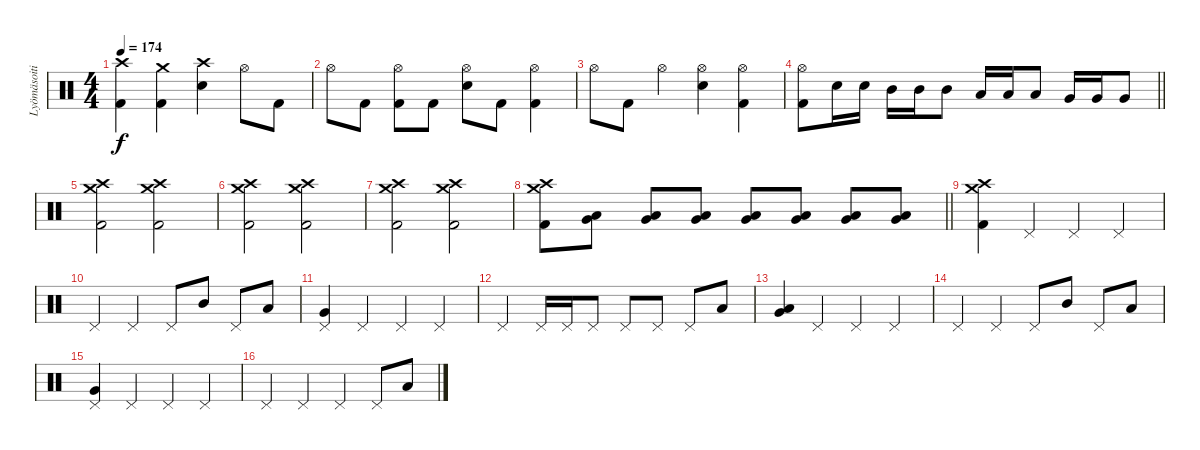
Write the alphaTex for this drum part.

\track ("Lyömäsoitin" "Lyömäsoiti") {instrument percussion}
\staff {score}
\articulation defaults
\ts (4 4)
\tempo 174
\clef neutral
\ks c
("Crash high (hit)" "Kick (hit) 2").4{dy f} ("Crash medium (hit)" "Kick (hit) 2").4 ("Crash high (hit)" "Electric Snare (hit)").4 "Hi-Hat (open)".8 "Kick (hit) 2".8 |
"Hi-Hat (open)".8 "Kick (hit) 2".8 ("Hi-Hat (open)" "Kick (hit) 2").8 "Kick (hit) 2".8 ("Hi-Hat (open)" "Electric Snare (hit)").8 "Kick (hit) 2".8 ("Hi-Hat (open)" "Kick (hit) 2").4 |
"Hi-Hat (open)".8 "Kick (hit) 2".8 "Hi-Hat (open)".4 ("Hi-Hat (open)" "Electric Snare (hit)").4 ("Hi-Hat (open)" "Kick (hit) 2").4 |
\barLineRight lightlight
("Hi-Hat (open)" "Kick (hit) 2").8 "Electric Snare (hit)".16 "Electric Snare (hit)".16 "Mid Tom (hit)".16 "Mid Tom (hit)".16 "Mid Tom (hit)".8 "Low Tom (hit)".16 "Low Tom (hit)".16 "Low Tom (hit)".8 "Very Low Tom (hit)".16 "Very Low Tom (hit)".16 "Very Low Tom (hit)".8 |
\section ("" "")
("Crash medium (hit)" "Crash high (hit)" "Kick (hit) 2").2 ("Crash medium (hit)" "Crash high (hit)" "Kick (hit) 2").2 |
("Crash medium (hit)" "Crash high (hit)" "Kick (hit) 2").2 ("Crash medium (hit)" "Crash high (hit)" "Kick (hit) 2").2 |
("Crash medium (hit)" "Crash high (hit)" "Kick (hit) 2").2 ("Crash medium (hit)" "Crash high (hit)" "Kick (hit) 2").2 |
\barLineRight lightlight
("Crash medium (hit)" "Crash high (hit)" "Kick (hit) 2").8 ("Low Tom (hit)" "Very Low Tom (hit)").8 ("Low Tom (hit)" "Very Low Tom (hit)").8 ("Low Tom (hit)" "Very Low Tom (hit)").8 ("Low Tom (hit)" "Very Low Tom (hit)").8 ("Low Tom (hit)" "Very Low Tom (hit)").8 ("Low Tom (hit)" "Very Low Tom (hit)").8 ("Low Tom (hit)" "Very Low Tom (hit)").8 |
\section ("" "")
("Crash medium (hit)" "Crash high (hit)" "Kick (hit) 2").4 "Pedal Hi-Hat (hit)".4 "Pedal Hi-Hat (hit)".4 "Pedal Hi-Hat (hit)".4 |
"Pedal Hi-Hat (hit)".4 "Pedal Hi-Hat (hit)".4 "Pedal Hi-Hat (hit)".8 "Mid Tom (hit)".8 "Pedal Hi-Hat (hit)".8 "Low Tom (hit)".8 |
("Pedal Hi-Hat (hit)" "Very Low Tom (hit)").4 "Pedal Hi-Hat (hit)".4 "Pedal Hi-Hat (hit)".4 "Pedal Hi-Hat (hit)".4 |
"Pedal Hi-Hat (hit)".4 "Pedal Hi-Hat (hit)".16 "Pedal Hi-Hat (hit)".16 "Pedal Hi-Hat (hit)".8 "Pedal Hi-Hat (hit)".8 "Pedal Hi-Hat (hit)".8 "Pedal Hi-Hat (hit)".8 "Low Tom (hit)".8 |
("Low Tom (hit)" "Very Low Tom (hit)").4 "Pedal Hi-Hat (hit)".4 "Pedal Hi-Hat (hit)".4 "Pedal Hi-Hat (hit)".4 |
"Pedal Hi-Hat (hit)".4 "Pedal Hi-Hat (hit)".4 "Pedal Hi-Hat (hit)".8 "Mid Tom (hit)".8 "Pedal Hi-Hat (hit)".8 "Low Tom (hit)".8 |
("Pedal Hi-Hat (hit)" "Very Low Tom (hit)").4 "Pedal Hi-Hat (hit)".4 "Pedal Hi-Hat (hit)".4 "Pedal Hi-Hat (hit)".4 |
"Pedal Hi-Hat (hit)".4 "Pedal Hi-Hat (hit)".4 "Pedal Hi-Hat (hit)".4 "Pedal Hi-Hat (hit)".8 "Low Tom (hit)".8
